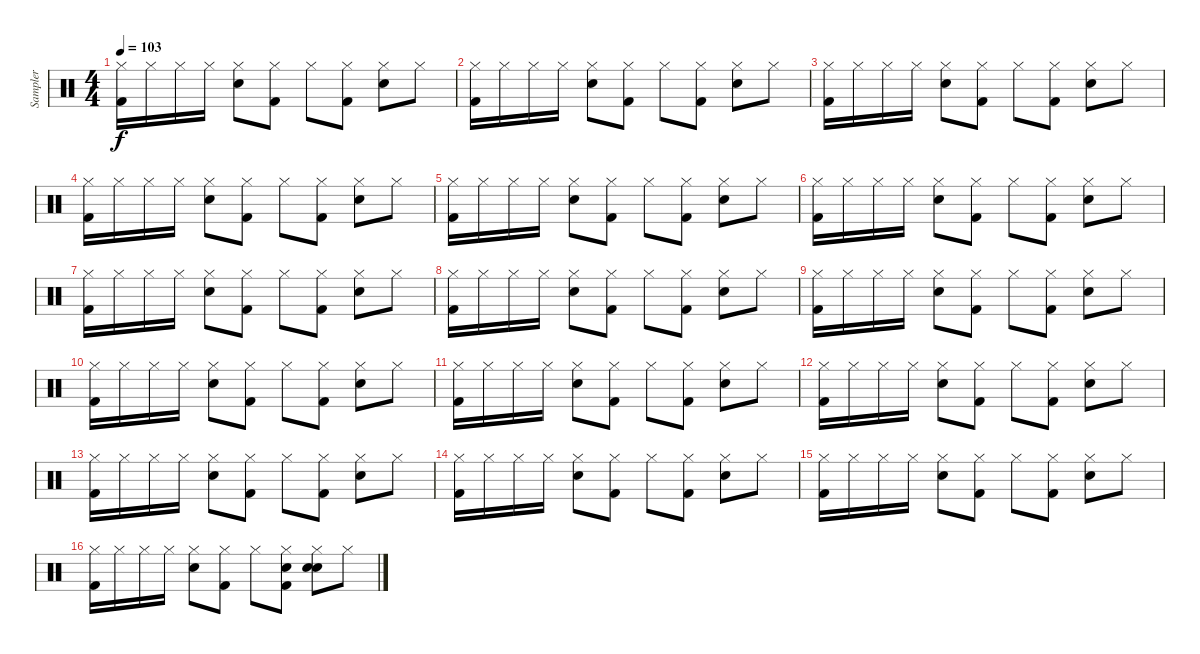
\track ("Sampler" "Sampler") {instrument percussion}
\staff {score}
\articulation defaults
\ts (4 4)
\tempo 103
\clef neutral
\ks c
("Hi-Hat (closed)" "Kick (hit) 2").16{dy f} "Hi-Hat (closed)".16 "Hi-Hat (closed)".16 "Hi-Hat (closed)".16 ("Hi-Hat (closed)" "Snare (hit) 2").8 ("Hi-Hat (closed)" "Kick (hit) 2").8 "Hi-Hat (closed)".8 ("Hi-Hat (closed)" "Kick (hit) 2").8 ("Hi-Hat (closed)" "Snare (hit) 2").8 "Hi-Hat (closed)".8 |
("Hi-Hat (closed)" "Kick (hit) 2").16 "Hi-Hat (closed)".16 "Hi-Hat (closed)".16 "Hi-Hat (closed)".16 ("Hi-Hat (closed)" "Snare (hit) 2").8 ("Hi-Hat (closed)" "Kick (hit) 2").8 "Hi-Hat (closed)".8 ("Hi-Hat (closed)" "Kick (hit) 2").8 ("Hi-Hat (closed)" "Snare (hit) 2").8 "Hi-Hat (closed)".8 |
("Hi-Hat (closed)" "Kick (hit) 2").16 "Hi-Hat (closed)".16 "Hi-Hat (closed)".16 "Hi-Hat (closed)".16 ("Hi-Hat (closed)" "Snare (hit) 2").8 ("Hi-Hat (closed)" "Kick (hit) 2").8 "Hi-Hat (closed)".8 ("Hi-Hat (closed)" "Kick (hit) 2").8 ("Hi-Hat (closed)" "Snare (hit) 2").8 "Hi-Hat (closed)".8 |
("Hi-Hat (closed)" "Kick (hit) 2").16 "Hi-Hat (closed)".16 "Hi-Hat (closed)".16 "Hi-Hat (closed)".16 ("Hi-Hat (closed)" "Snare (hit) 2").8 ("Hi-Hat (closed)" "Kick (hit) 2").8 "Hi-Hat (closed)".8 ("Hi-Hat (closed)" "Kick (hit) 2").8 ("Hi-Hat (closed)" "Snare (hit) 2").8 "Hi-Hat (closed)".8 |
("Hi-Hat (closed)" "Kick (hit) 2").16 "Hi-Hat (closed)".16 "Hi-Hat (closed)".16 "Hi-Hat (closed)".16 ("Hi-Hat (closed)" "Snare (hit) 2").8 ("Hi-Hat (closed)" "Kick (hit) 2").8 "Hi-Hat (closed)".8 ("Hi-Hat (closed)" "Kick (hit) 2").8 ("Hi-Hat (closed)" "Snare (hit) 2").8 "Hi-Hat (closed)".8 |
("Hi-Hat (closed)" "Kick (hit) 2").16 "Hi-Hat (closed)".16 "Hi-Hat (closed)".16 "Hi-Hat (closed)".16 ("Hi-Hat (closed)" "Snare (hit) 2").8 ("Hi-Hat (closed)" "Kick (hit) 2").8 "Hi-Hat (closed)".8 ("Hi-Hat (closed)" "Kick (hit) 2").8 ("Hi-Hat (closed)" "Snare (hit) 2").8 "Hi-Hat (closed)".8 |
("Hi-Hat (closed)" "Kick (hit) 2").16 "Hi-Hat (closed)".16 "Hi-Hat (closed)".16 "Hi-Hat (closed)".16 ("Hi-Hat (closed)" "Snare (hit) 2").8 ("Hi-Hat (closed)" "Kick (hit) 2").8 "Hi-Hat (closed)".8 ("Hi-Hat (closed)" "Kick (hit) 2").8 ("Hi-Hat (closed)" "Snare (hit) 2").8 "Hi-Hat (closed)".8 |
("Hi-Hat (closed)" "Kick (hit) 2").16 "Hi-Hat (closed)".16 "Hi-Hat (closed)".16 "Hi-Hat (closed)".16 ("Hi-Hat (closed)" "Snare (hit) 2").8 ("Hi-Hat (closed)" "Kick (hit) 2").8 "Hi-Hat (closed)".8 ("Hi-Hat (closed)" "Kick (hit) 2").8 ("Hi-Hat (closed)" "Snare (hit) 2").8 "Hi-Hat (closed)".8 |
("Hi-Hat (closed)" "Kick (hit) 2").16 "Hi-Hat (closed)".16 "Hi-Hat (closed)".16 "Hi-Hat (closed)".16 ("Hi-Hat (closed)" "Snare (hit) 2").8 ("Hi-Hat (closed)" "Kick (hit) 2").8 "Hi-Hat (closed)".8 ("Hi-Hat (closed)" "Kick (hit) 2").8 ("Hi-Hat (closed)" "Snare (hit) 2").8 "Hi-Hat (closed)".8 |
("Hi-Hat (closed)" "Kick (hit) 2").16 "Hi-Hat (closed)".16 "Hi-Hat (closed)".16 "Hi-Hat (closed)".16 ("Hi-Hat (closed)" "Snare (hit) 2").8 ("Hi-Hat (closed)" "Kick (hit) 2").8 "Hi-Hat (closed)".8 ("Hi-Hat (closed)" "Kick (hit) 2").8 ("Hi-Hat (closed)" "Snare (hit) 2").8 "Hi-Hat (closed)".8 |
("Hi-Hat (closed)" "Kick (hit) 2").16 "Hi-Hat (closed)".16 "Hi-Hat (closed)".16 "Hi-Hat (closed)".16 ("Hi-Hat (closed)" "Snare (hit) 2").8 ("Hi-Hat (closed)" "Kick (hit) 2").8 "Hi-Hat (closed)".8 ("Hi-Hat (closed)" "Kick (hit) 2").8 ("Hi-Hat (closed)" "Snare (hit) 2").8 "Hi-Hat (closed)".8 |
("Hi-Hat (closed)" "Kick (hit) 2").16 "Hi-Hat (closed)".16 "Hi-Hat (closed)".16 "Hi-Hat (closed)".16 ("Hi-Hat (closed)" "Snare (hit) 2").8 ("Hi-Hat (closed)" "Kick (hit) 2").8 "Hi-Hat (closed)".8 ("Hi-Hat (closed)" "Kick (hit) 2").8 ("Hi-Hat (closed)" "Snare (hit) 2").8 "Hi-Hat (closed)".8 |
("Hi-Hat (closed)" "Kick (hit) 2").16 "Hi-Hat (closed)".16 "Hi-Hat (closed)".16 "Hi-Hat (closed)".16 ("Hi-Hat (closed)" "Snare (hit) 2").8 ("Hi-Hat (closed)" "Kick (hit) 2").8 "Hi-Hat (closed)".8 ("Hi-Hat (closed)" "Kick (hit) 2").8 ("Hi-Hat (closed)" "Snare (hit) 2").8 "Hi-Hat (closed)".8 |
("Hi-Hat (closed)" "Kick (hit) 2").16 "Hi-Hat (closed)".16 "Hi-Hat (closed)".16 "Hi-Hat (closed)".16 ("Hi-Hat (closed)" "Snare (hit) 2").8 ("Hi-Hat (closed)" "Kick (hit) 2").8 "Hi-Hat (closed)".8 ("Hi-Hat (closed)" "Kick (hit) 2").8 ("Hi-Hat (closed)" "Snare (hit) 2").8 "Hi-Hat (closed)".8 |
("Hi-Hat (closed)" "Kick (hit) 2").16 "Hi-Hat (closed)".16 "Hi-Hat (closed)".16 "Hi-Hat (closed)".16 ("Hi-Hat (closed)" "Snare (hit) 2").8 ("Hi-Hat (closed)" "Kick (hit) 2").8 "Hi-Hat (closed)".8 ("Hi-Hat (closed)" "Kick (hit) 2").8 ("Hi-Hat (closed)" "Snare (hit) 2").8 "Hi-Hat (closed)".8 |
("Hi-Hat (closed)" "Kick (hit) 2").16 "Hi-Hat (closed)".16 "Hi-Hat (closed)".16 "Hi-Hat (closed)".16 ("Hi-Hat (closed)" "Snare (hit) 2").8 ("Hi-Hat (closed)" "Kick (hit) 2").8 "Hi-Hat (closed)".8 ("Hi-Hat (closed)" "Hand Clap (hit)" "Kick (hit) 2").8 ("Hi-Hat (closed)" "Hand Clap (hit)" "Snare (hit) 2").8 "Hi-Hat (closed)".8
